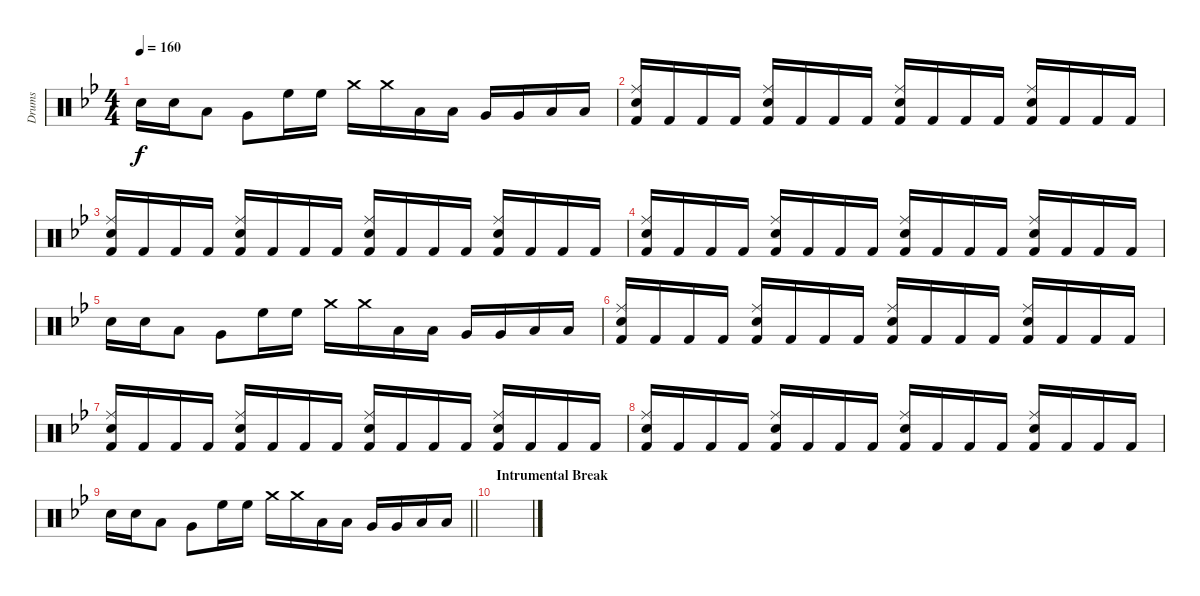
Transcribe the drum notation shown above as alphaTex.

\track ("Drums" "Drums") {instrument percussion}
\staff {score}
\articulation defaults
\ts (4 4)
\tempo 160
\clef neutral
\ks bb "Electric Snare (hit)".16{dy f} "Electric Snare (hit)".16 "Low Tom (hit)".8 "Very Low Tom (hit)".8 "High Floor Tom (hit)".16 "High Floor Tom (hit)".16 "Crash medium (hit)".16 "Crash medium (hit)".16 "Low Tom (hit)".16 "Low Tom (hit)".16 "Very Low Tom (hit)".16 "Very Low Tom (hit)".16 "Low Floor Tom (hit)".16 "Low Floor Tom (hit)".16
|
("Ride (middle)" "Electric Snare (hit)" "Kick (hit) 2").16 "Kick (hit) 2".16 "Kick (hit) 2".16 "Kick (hit) 2".16 ("Ride (middle)" "Electric Snare (hit)" "Kick (hit) 2").16 "Kick (hit) 2".16 "Kick (hit) 2".16 "Kick (hit) 2".16 ("Ride (middle)" "Electric Snare (hit)" "Kick (hit) 2").16 "Kick (hit) 2".16 "Kick (hit) 2".16 "Kick (hit) 2".16 ("Ride (middle)" "Electric Snare (hit)" "Kick (hit) 2").16 "Kick (hit) 2".16 "Kick (hit) 2".16 "Kick (hit) 2".16 |
("Ride (middle)" "Electric Snare (hit)" "Kick (hit) 2").16 "Kick (hit) 2".16 "Kick (hit) 2".16 "Kick (hit) 2".16 ("Ride (middle)" "Electric Snare (hit)" "Kick (hit) 2").16 "Kick (hit) 2".16 "Kick (hit) 2".16 "Kick (hit) 2".16 ("Ride (middle)" "Electric Snare (hit)" "Kick (hit) 2").16 "Kick (hit) 2".16 "Kick (hit) 2".16 "Kick (hit) 2".16 ("Ride (middle)" "Electric Snare (hit)" "Kick (hit) 2").16 "Kick (hit) 2".16 "Kick (hit) 2".16 "Kick (hit) 2".16 |
("Ride (middle)" "Electric Snare (hit)" "Kick (hit) 2").16 "Kick (hit) 2".16 "Kick (hit) 2".16 "Kick (hit) 2".16 ("Ride (middle)" "Electric Snare (hit)" "Kick (hit) 2").16 "Kick (hit) 2".16 "Kick (hit) 2".16 "Kick (hit) 2".16 ("Ride (middle)" "Electric Snare (hit)" "Kick (hit) 2").16 "Kick (hit) 2".16 "Kick (hit) 2".16 "Kick (hit) 2".16 ("Ride (middle)" "Electric Snare (hit)" "Kick (hit) 2").16 "Kick (hit) 2".16 "Kick (hit) 2".16 "Kick (hit) 2".16 |
"Electric Snare (hit)".16 "Electric Snare (hit)".16 "Low Tom (hit)".8 "Very Low Tom (hit)".8 "High Floor Tom (hit)".16 "High Floor Tom (hit)".16 "Crash medium (hit)".16 "Crash medium (hit)".16 "Low Tom (hit)".16 "Low Tom (hit)".16 "Very Low Tom (hit)".16 "Very Low Tom (hit)".16 "Low Floor Tom (hit)".16 "Low Floor Tom (hit)".16 |
("Ride (middle)" "Electric Snare (hit)" "Kick (hit) 2").16 "Kick (hit) 2".16 "Kick (hit) 2".16 "Kick (hit) 2".16 ("Ride (middle)" "Electric Snare (hit)" "Kick (hit) 2").16 "Kick (hit) 2".16 "Kick (hit) 2".16 "Kick (hit) 2".16 ("Ride (middle)" "Electric Snare (hit)" "Kick (hit) 2").16 "Kick (hit) 2".16 "Kick (hit) 2".16 "Kick (hit) 2".16 ("Ride (middle)" "Electric Snare (hit)" "Kick (hit) 2").16 "Kick (hit) 2".16 "Kick (hit) 2".16 "Kick (hit) 2".16 |
("Ride (middle)" "Electric Snare (hit)" "Kick (hit) 2").16 "Kick (hit) 2".16 "Kick (hit) 2".16 "Kick (hit) 2".16 ("Ride (middle)" "Electric Snare (hit)" "Kick (hit) 2").16 "Kick (hit) 2".16 "Kick (hit) 2".16 "Kick (hit) 2".16 ("Ride (middle)" "Electric Snare (hit)" "Kick (hit) 2").16 "Kick (hit) 2".16 "Kick (hit) 2".16 "Kick (hit) 2".16 ("Ride (middle)" "Electric Snare (hit)" "Kick (hit) 2").16 "Kick (hit) 2".16 "Kick (hit) 2".16 "Kick (hit) 2".16 |
("Ride (middle)" "Electric Snare (hit)" "Kick (hit) 2").16 "Kick (hit) 2".16 "Kick (hit) 2".16 "Kick (hit) 2".16 ("Ride (middle)" "Electric Snare (hit)" "Kick (hit) 2").16 "Kick (hit) 2".16 "Kick (hit) 2".16 "Kick (hit) 2".16 ("Ride (middle)" "Electric Snare (hit)" "Kick (hit) 2").16 "Kick (hit) 2".16 "Kick (hit) 2".16 "Kick (hit) 2".16 ("Ride (middle)" "Electric Snare (hit)" "Kick (hit) 2").16 "Kick (hit) 2".16 "Kick (hit) 2".16 "Kick (hit) 2".16 |
\barLineRight lightlight "Electric Snare (hit)".16 "Electric Snare (hit)".16 "Low Tom (hit)".8 "Very Low Tom (hit)".8 "High Floor Tom (hit)".16 "High Floor Tom (hit)".16 "Crash medium (hit)".16 "Crash medium (hit)".16 "Low Tom (hit)".16 "Low Tom (hit)".16 "Very Low Tom (hit)".16 "Very Low Tom (hit)".16 "Low Floor Tom (hit)".16 "Low Floor Tom (hit)".16
|
\section ("" "Intrumental Break")
